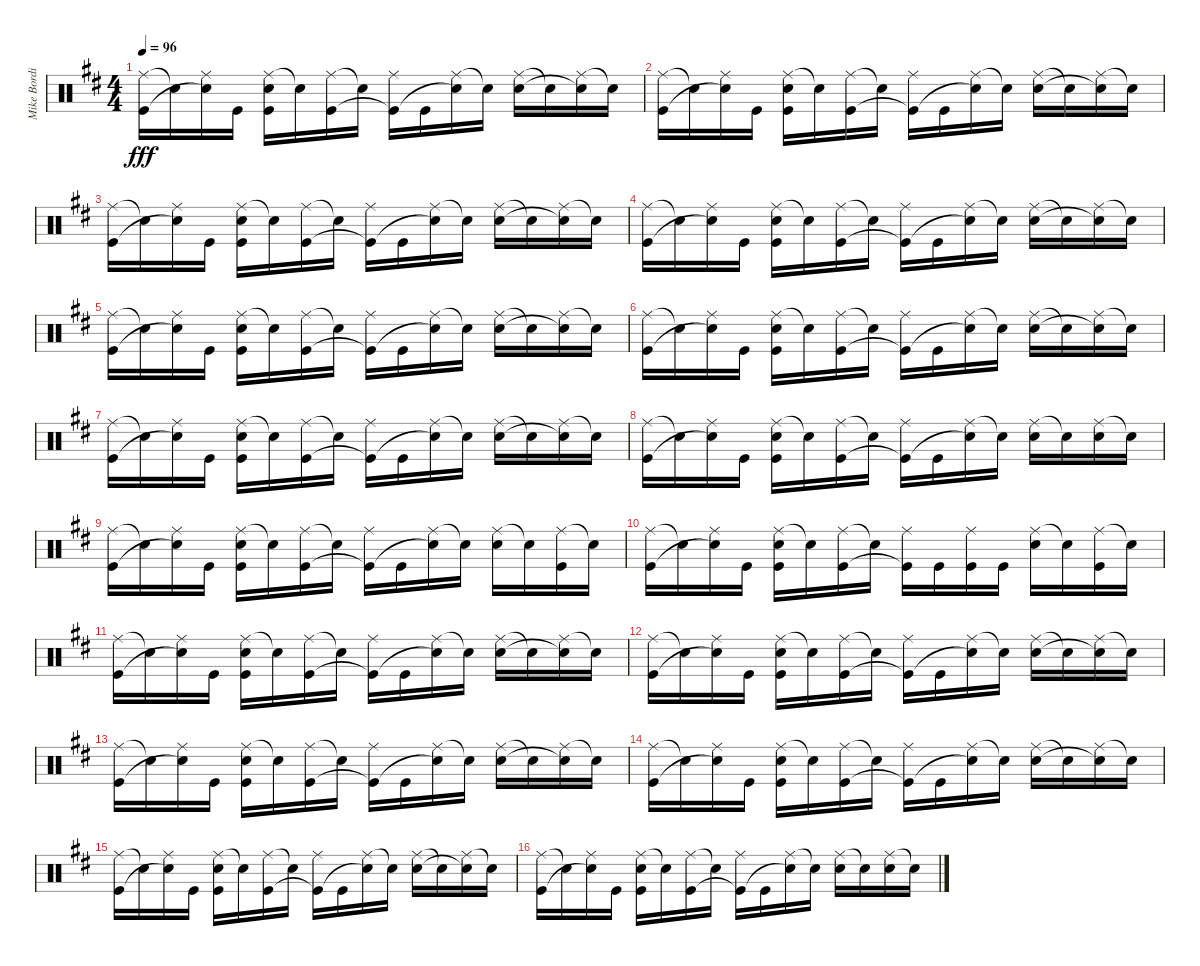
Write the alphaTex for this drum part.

\track ("Mike Bordin" "Mike Bordi") {instrument percussion}
\staff {score}
\articulation defaults
\ts (4 4)
\tempo 96
\clef neutral
\ks d
("Ride (middle)" "Kick (hit)").16{dy fff} "Snare (hit)"{t}.16 ("Ride (middle)" "Snare (hit)"{t}).16 "Kick (hit)".16 ("Ride (middle)" "Electric Snare (hit)" "Kick (hit)").16 "Snare (hit)"{t}.16 ("Ride (middle)" "Kick (hit)").16 "Snare (hit)"{t}.16 ("Ride (middle)" "Kick (hit)"{t}).16 "Kick (hit)".16 ("Ride (middle)" "Snare (hit)"{t}).16 "Snare (hit)"{t}.16 ("Ride (middle)" "Electric Snare (hit)").16 "Snare (hit)"{t}.16 ("Ride (middle)" "Snare (hit)"{t}).16 "Snare (hit)"{t}.16 |
("Ride (middle)" "Kick (hit)").16 "Snare (hit)"{t}.16 ("Ride (middle)" "Snare (hit)"{t}).16 "Kick (hit)".16 ("Ride (middle)" "Electric Snare (hit)" "Kick (hit)").16 "Snare (hit)"{t}.16 ("Ride (middle)" "Kick (hit)").16 "Snare (hit)"{t}.16 ("Ride (middle)" "Kick (hit)"{t}).16 "Kick (hit)".16 ("Ride (middle)" "Snare (hit)"{t}).16 "Snare (hit)"{t}.16 ("Ride (middle)" "Electric Snare (hit)").16 "Snare (hit)"{t}.16 ("Ride (middle)" "Snare (hit)"{t}).16 "Snare (hit)"{t}.16 |
("Ride (middle)" "Kick (hit)").16 "Snare (hit)"{t}.16 ("Ride (middle)" "Snare (hit)"{t}).16 "Kick (hit)".16 ("Ride (middle)" "Electric Snare (hit)" "Kick (hit)").16 "Snare (hit)"{t}.16 ("Ride (middle)" "Kick (hit)").16 "Snare (hit)"{t}.16 ("Ride (middle)" "Kick (hit)"{t}).16 "Kick (hit)".16 ("Ride (middle)" "Snare (hit)"{t}).16 "Snare (hit)"{t}.16 ("Ride (middle)" "Electric Snare (hit)").16 "Snare (hit)"{t}.16 ("Ride (middle)" "Snare (hit)"{t}).16 "Snare (hit)"{t}.16 |
("Ride (middle)" "Kick (hit)").16 "Snare (hit)"{t}.16 ("Ride (middle)" "Snare (hit)"{t}).16 "Kick (hit)".16 ("Ride (middle)" "Electric Snare (hit)" "Kick (hit)").16 "Snare (hit)"{t}.16 ("Ride (middle)" "Kick (hit)").16 "Snare (hit)"{t}.16 ("Ride (middle)" "Kick (hit)"{t}).16 "Kick (hit)".16 ("Ride (middle)" "Snare (hit)"{t}).16 "Snare (hit)"{t}.16 ("Ride (middle)" "Electric Snare (hit)").16 "Snare (hit)"{t}.16 ("Ride (middle)" "Snare (hit)"{t}).16 "Snare (hit)"{t}.16 |
("Ride (middle)" "Kick (hit)").16 "Snare (hit)"{t}.16 ("Ride (middle)" "Snare (hit)"{t}).16 "Kick (hit)".16 ("Ride (middle)" "Electric Snare (hit)" "Kick (hit)").16 "Snare (hit)"{t}.16 ("Ride (middle)" "Kick (hit)").16 "Snare (hit)"{t}.16 ("Ride (middle)" "Kick (hit)"{t}).16 "Kick (hit)".16 ("Ride (middle)" "Snare (hit)"{t}).16 "Snare (hit)"{t}.16 ("Ride (middle)" "Electric Snare (hit)").16 "Snare (hit)"{t}.16 ("Ride (middle)" "Snare (hit)"{t}).16 "Snare (hit)"{t}.16 |
("Ride (middle)" "Kick (hit)").16 "Snare (hit)"{t}.16 ("Ride (middle)" "Snare (hit)"{t}).16 "Kick (hit)".16 ("Ride (middle)" "Electric Snare (hit)" "Kick (hit)").16 "Snare (hit)"{t}.16 ("Ride (middle)" "Kick (hit)").16 "Snare (hit)"{t}.16 ("Ride (middle)" "Kick (hit)"{t}).16 "Kick (hit)".16 ("Ride (middle)" "Snare (hit)"{t}).16 "Snare (hit)"{t}.16 ("Ride (middle)" "Electric Snare (hit)").16 "Snare (hit)"{t}.16 ("Ride (middle)" "Snare (hit)"{t}).16 "Snare (hit)"{t}.16 |
("Ride (middle)" "Kick (hit)").16 "Snare (hit)"{t}.16 ("Ride (middle)" "Snare (hit)"{t}).16 "Kick (hit)".16 ("Ride (middle)" "Electric Snare (hit)" "Kick (hit)").16 "Snare (hit)"{t}.16 ("Ride (middle)" "Kick (hit)").16 "Snare (hit)"{t}.16 ("Ride (middle)" "Kick (hit)"{t}).16 "Kick (hit)".16 ("Ride (middle)" "Snare (hit)"{t}).16 "Snare (hit)"{t}.16 ("Ride (middle)" "Electric Snare (hit)").16 "Snare (hit)"{t}.16 ("Ride (middle)" "Snare (hit)"{t}).16 "Snare (hit)"{t}.16 |
("Ride (middle)" "Kick (hit)").16 "Snare (hit)"{t}.16 ("Ride (middle)" "Snare (hit)"{t}).16 "Kick (hit)".16 ("Ride (middle)" "Electric Snare (hit)" "Kick (hit)").16 "Snare (hit)"{t}.16 ("Ride (middle)" "Kick (hit)").16 "Snare (hit)"{t}.16 ("Ride (middle)" "Kick (hit)"{t}).16 "Kick (hit)".16 ("Ride (middle)" "Snare (hit)"{t}).16 "Snare (hit)"{t}.16 ("Ride (middle)" "Electric Snare (hit)").16 "Snare (hit)"{t}.16 ("Ride (middle)" "Electric Snare (hit)").16 "Snare (hit)"{t}.16 |
("Ride (middle)" "Kick (hit)").16 "Snare (hit)"{t}.16 ("Ride (middle)" "Snare (hit)"{t}).16 "Kick (hit)".16 ("Ride (middle)" "Electric Snare (hit)" "Kick (hit)").16 "Snare (hit)"{t}.16 ("Ride (middle)" "Kick (hit)").16 "Snare (hit)"{t}.16 ("Ride (middle)" "Kick (hit)"{t}).16 "Kick (hit)".16 ("Ride (middle)" "Snare (hit)"{t}).16 "Snare (hit)"{t}.16 ("Ride (middle)" "Electric Snare (hit)").16 "Snare (hit)"{t}.16 ("Ride (middle)" "Kick (hit)").16 "Snare (hit)"{t}.16 |
("Ride (middle)" "Kick (hit)").16 "Snare (hit)"{t}.16 ("Ride (middle)" "Snare (hit)"{t}).16 "Kick (hit)".16 ("Ride (middle)" "Electric Snare (hit)" "Kick (hit)").16 "Snare (hit)"{t}.16 ("Ride (middle)" "Kick (hit)").16 "Snare (hit)"{t}.16 ("Ride (middle)" "Kick (hit)"{t}).16 "Kick (hit)".16 ("Ride (middle)" "Kick (hit)").16 "Kick (hit)".16 ("Ride (middle)" "Electric Snare (hit)").16 "Snare (hit)"{t}.16 ("Ride (middle)" "Kick (hit)").16 "Snare (hit)"{t}.16 |
("Ride (middle)" "Kick (hit)").16 "Snare (hit)"{t}.16 ("Ride (middle)" "Snare (hit)"{t}).16 "Kick (hit)".16 ("Ride (middle)" "Electric Snare (hit)" "Kick (hit)").16 "Snare (hit)"{t}.16 ("Ride (middle)" "Kick (hit)").16 "Snare (hit)"{t}.16 ("Ride (middle)" "Kick (hit)"{t}).16 "Kick (hit)".16 ("Ride (middle)" "Snare (hit)"{t}).16 "Snare (hit)"{t}.16 ("Ride (middle)" "Electric Snare (hit)").16 "Snare (hit)"{t}.16 ("Ride (middle)" "Snare (hit)"{t}).16 "Snare (hit)"{t}.16 |
("Ride (middle)" "Kick (hit)").16 "Snare (hit)"{t}.16 ("Ride (middle)" "Snare (hit)"{t}).16 "Kick (hit)".16 ("Ride (middle)" "Electric Snare (hit)" "Kick (hit)").16 "Snare (hit)"{t}.16 ("Ride (middle)" "Kick (hit)").16 "Snare (hit)"{t}.16 ("Ride (middle)" "Kick (hit)"{t}).16 "Kick (hit)".16 ("Ride (middle)" "Snare (hit)"{t}).16 "Snare (hit)"{t}.16 ("Ride (middle)" "Electric Snare (hit)").16 "Snare (hit)"{t}.16 ("Ride (middle)" "Snare (hit)"{t}).16 "Snare (hit)"{t}.16 |
("Ride (middle)" "Kick (hit)").16 "Snare (hit)"{t}.16 ("Ride (middle)" "Snare (hit)"{t}).16 "Kick (hit)".16 ("Ride (middle)" "Electric Snare (hit)" "Kick (hit)").16 "Snare (hit)"{t}.16 ("Ride (middle)" "Kick (hit)").16 "Snare (hit)"{t}.16 ("Ride (middle)" "Kick (hit)"{t}).16 "Kick (hit)".16 ("Ride (middle)" "Snare (hit)"{t}).16 "Snare (hit)"{t}.16 ("Ride (middle)" "Electric Snare (hit)").16 "Snare (hit)"{t}.16 ("Ride (middle)" "Snare (hit)"{t}).16 "Snare (hit)"{t}.16 |
("Ride (middle)" "Kick (hit)").16 "Snare (hit)"{t}.16 ("Ride (middle)" "Snare (hit)"{t}).16 "Kick (hit)".16 ("Ride (middle)" "Electric Snare (hit)" "Kick (hit)").16 "Snare (hit)"{t}.16 ("Ride (middle)" "Kick (hit)").16 "Snare (hit)"{t}.16 ("Ride (middle)" "Kick (hit)"{t}).16 "Kick (hit)".16 ("Ride (middle)" "Snare (hit)"{t}).16 "Snare (hit)"{t}.16 ("Ride (middle)" "Electric Snare (hit)").16 "Snare (hit)"{t}.16 ("Ride (middle)" "Snare (hit)"{t}).16 "Snare (hit)"{t}.16 |
("Ride (middle)" "Kick (hit)").16 "Snare (hit)"{t}.16 ("Ride (middle)" "Snare (hit)"{t}).16 "Kick (hit)".16 ("Ride (middle)" "Electric Snare (hit)" "Kick (hit)").16 "Snare (hit)"{t}.16 ("Ride (middle)" "Kick (hit)").16 "Snare (hit)"{t}.16 ("Ride (middle)" "Kick (hit)"{t}).16 "Kick (hit)".16 ("Ride (middle)" "Snare (hit)"{t}).16 "Snare (hit)"{t}.16 ("Ride (middle)" "Electric Snare (hit)").16 "Snare (hit)"{t}.16 ("Ride (middle)" "Snare (hit)"{t}).16 "Snare (hit)"{t}.16 |
("Ride (middle)" "Kick (hit)").16 "Snare (hit)"{t}.16 ("Ride (middle)" "Snare (hit)"{t}).16 "Kick (hit)".16 ("Ride (middle)" "Electric Snare (hit)" "Kick (hit)").16 "Snare (hit)"{t}.16 ("Ride (middle)" "Kick (hit)").16 "Snare (hit)"{t}.16 ("Ride (middle)" "Kick (hit)"{t}).16 "Kick (hit)".16 ("Ride (middle)" "Snare (hit)"{t}).16 "Snare (hit)"{t}.16 ("Ride (middle)" "Electric Snare (hit)").16 "Snare (hit)"{t}.16 ("Ride (middle)" "Electric Snare (hit)").16 "Snare (hit)"{t}.16
